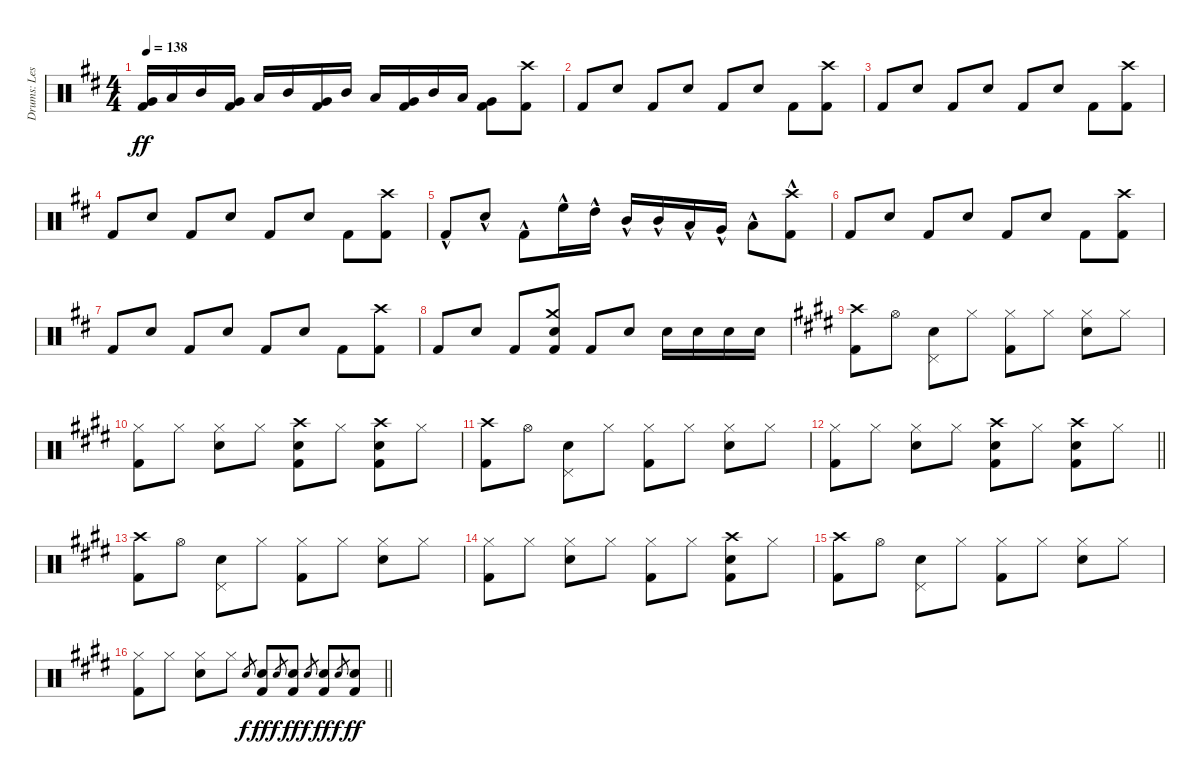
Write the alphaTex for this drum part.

\track ("Drums: Les" "Drums: Les") {instrument percussion}
\staff {score}
\articulation defaults
\ts (4 4)
\tempo 138
\clef neutral
\ks d
("Very Low Tom (hit)" "Kick (hit) 2").16{dy ff} "Low Tom (hit)".16 "Mid Tom (hit)".16 ("Very Low Tom (hit)" "Kick (hit) 2").16 "Low Tom (hit)".16 "Mid Tom (hit)".16 ("Very Low Tom (hit)" "Kick (hit) 2").16 "Mid Tom (hit)".16 "Low Tom (hit)".16 ("Very Low Tom (hit)" "Kick (hit) 2").16 "Mid Tom (hit)".16 "Low Tom (hit)".16 ("Very Low Tom (hit)" "Kick (hit) 2").8 ("Crash high (hit)" "Kick (hit) 2").8 |
"Kick (hit) 2".8 "Electric Snare (hit)".8 "Kick (hit) 2".8 "Electric Snare (hit)".8 "Kick (hit) 2".8 "Electric Snare (hit)".8 "Kick (hit) 2".8 ("Crash high (hit)" "Kick (hit) 2").8 |
"Kick (hit) 2".8 "Electric Snare (hit)".8 "Kick (hit) 2".8 "Electric Snare (hit)".8 "Kick (hit) 2".8 "Electric Snare (hit)".8 "Kick (hit) 2".8 ("Crash high (hit)" "Kick (hit) 2").8 |
"Kick (hit) 2".8 "Electric Snare (hit)".8 "Kick (hit) 2".8 "Electric Snare (hit)".8 "Kick (hit) 2".8 "Electric Snare (hit)".8 "Kick (hit) 2".8 ("Crash high (hit)" "Kick (hit) 2").8 |
"Kick (hit) 2"{hac}.8 "Electric Snare (hit)"{hac}.8 "Kick (hit) 2"{hac}.8 "High Floor Tom (hit)"{hac}.16 "High Tom (hit)"{hac}.16 "Mid Tom (hit)"{hac}.16 "Mid Tom (hit)"{hac}.16 "Low Tom (hit)"{hac}.16 "Very Low Tom (hit)"{hac}.16 "Low Floor Tom (hit)"{hac}.8 ("Crash high (hit)"{hac} "Kick (hit) 2"{hac}).8 |
"Kick (hit) 2".8 "Electric Snare (hit)".8 "Kick (hit) 2".8 "Electric Snare (hit)".8 "Kick (hit) 2".8 "Electric Snare (hit)".8 "Kick (hit) 2".8 ("Crash high (hit)" "Kick (hit) 2").8 |
"Kick (hit) 2".8 "Electric Snare (hit)".8 "Kick (hit) 2".8 "Electric Snare (hit)".8 "Kick (hit) 2".8 "Electric Snare (hit)".8 "Kick (hit) 2".8 ("Crash high (hit)" "Kick (hit) 2").8 |
"Kick (hit) 2".8 "Electric Snare (hit)".8 "Kick (hit) 2".8 ("Crash medium (hit)" "Snare (hit) 2" "Kick (hit) 2").8 "Kick (hit) 2".8 "Snare (hit) 2".8 "Snare (hit) 2".16 "Snare (hit) 2".16 "Snare (hit) 2".16 "Snare (hit) 2".16 |
\ks e
("Crash high (hit)" "Kick (hit) 2").8 "Hi-Hat (open)".8 ("Pedal Hi-Hat (hit)" "Snare (hit) 2").8 "Hi-Hat (closed)".8 ("Hi-Hat (closed)" "Kick (hit) 2").8 "Hi-Hat (closed)".8 ("Hi-Hat (closed)" "Snare (hit) 2").8 "Hi-Hat (closed)".8 |
("Hi-Hat (closed)" "Kick (hit) 2").8 "Hi-Hat (closed)".8 ("Hi-Hat (closed)" "Snare (hit) 2").8 "Hi-Hat (closed)".8 ("Crash high (hit)" "Snare (hit) 2" "Kick (hit) 2").8 "Hi-Hat (closed)".8 ("Crash high (hit)" "Snare (hit) 2" "Kick (hit) 2").8 "Hi-Hat (closed)".8 |
("Crash high (hit)" "Kick (hit) 2").8 "Hi-Hat (open)".8 ("Pedal Hi-Hat (hit)" "Snare (hit) 2").8 "Hi-Hat (closed)".8 ("Hi-Hat (closed)" "Kick (hit) 2").8 "Hi-Hat (closed)".8 ("Hi-Hat (closed)" "Snare (hit) 2").8 "Hi-Hat (closed)".8 |
\barLineRight lightlight
("Hi-Hat (closed)" "Kick (hit) 2").8 "Hi-Hat (closed)".8 ("Hi-Hat (closed)" "Snare (hit) 2").8 "Hi-Hat (closed)".8 ("Crash high (hit)" "Snare (hit) 2" "Kick (hit) 2").8 "Hi-Hat (closed)".8 ("Crash high (hit)" "Snare (hit) 2" "Kick (hit) 2").8 "Hi-Hat (closed)".8 |
("Crash high (hit)" "Kick (hit) 2").8 "Hi-Hat (open)".8 ("Pedal Hi-Hat (hit)" "Snare (hit) 2").8 "Hi-Hat (closed)".8 ("Hi-Hat (closed)" "Kick (hit) 2").8 "Hi-Hat (closed)".8 ("Hi-Hat (closed)" "Snare (hit) 2").8 "Hi-Hat (closed)".8 |
("Hi-Hat (closed)" "Kick (hit) 2").8 "Hi-Hat (closed)".8 ("Hi-Hat (closed)" "Snare (hit) 2").8 "Hi-Hat (closed)".8 ("Hi-Hat (closed)" "Kick (hit) 2").8 "Hi-Hat (closed)".8 ("Crash high (hit)" "Snare (hit) 2" "Kick (hit) 2").8 "Hi-Hat (closed)".8 |
("Crash high (hit)" "Kick (hit) 2").8 "Hi-Hat (open)".8 ("Pedal Hi-Hat (hit)" "Snare (hit) 2").8 "Hi-Hat (closed)".8 ("Hi-Hat (closed)" "Kick (hit) 2").8 "Hi-Hat (closed)".8 ("Hi-Hat (closed)" "Snare (hit) 2").8 "Hi-Hat (closed)".8 |
\barLineRight lightlight
("Hi-Hat (closed)" "Kick (hit) 2").8 "Hi-Hat (closed)".8 ("Hi-Hat (closed)" "Snare (hit) 2").8 "Hi-Hat (closed)".8 "Snare (hit) 2".8{gr dy f} ("Snare (hit) 2" "Kick (hit) 2").8{dy ff} "Snare (hit) 2".8{gr dy f} ("Snare (hit) 2" "Kick (hit) 2").8{dy ff} "Snare (hit) 2".8{gr dy f} ("Snare (hit) 2" "Kick (hit) 2").8{dy ff} "Snare (hit) 2".8{gr dy f} ("Snare (hit) 2" "Kick (hit) 2").8{dy ff}
